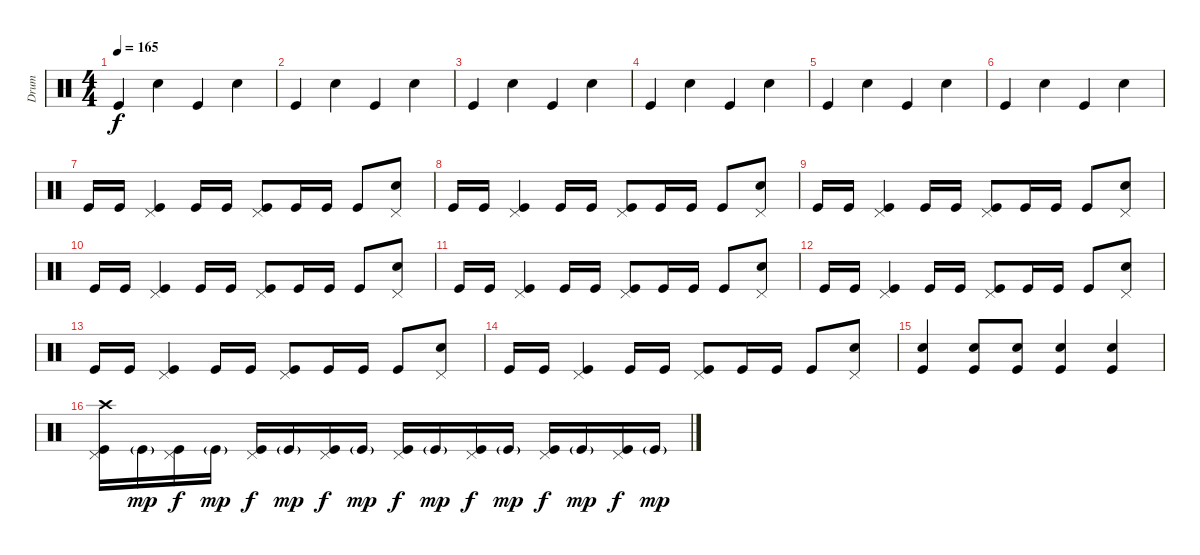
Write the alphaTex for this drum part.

\track ("Drum" "Drum") {instrument percussion}
\staff {score}
\articulation defaults
\ts (4 4)
\tempo 165
\clef neutral
\ks c "Kick (hit)".4{dy f} "Electric Snare (hit)".4 "Kick (hit)".4 "Electric Snare (hit)".4
|
"Kick (hit)".4 "Electric Snare (hit)".4 "Kick (hit)".4 "Electric Snare (hit)".4 |
"Kick (hit)".4 "Electric Snare (hit)".4 "Kick (hit)".4 "Electric Snare (hit)".4 |
"Kick (hit)".4 "Electric Snare (hit)".4 "Kick (hit)".4 "Electric Snare (hit)".4 |
"Kick (hit)".4 "Electric Snare (hit)".4 "Kick (hit)".4 "Electric Snare (hit)".4 |
"Kick (hit)".4 "Electric Snare (hit)".4 "Kick (hit)".4 "Electric Snare (hit)".4 |
"Kick (hit)".16 "Kick (hit)".16 ("Pedal Hi-Hat (hit)" "Kick (hit)").4 "Kick (hit)".16 "Kick (hit)".16 ("Pedal Hi-Hat (hit)" "Kick (hit)").8 "Kick (hit)".16 "Kick (hit)".16 "Kick (hit)".8 ("Pedal Hi-Hat (hit)" "Electric Snare (hit)").8 |
"Kick (hit)".16 "Kick (hit)".16 ("Pedal Hi-Hat (hit)" "Kick (hit)").4 "Kick (hit)".16 "Kick (hit)".16 ("Pedal Hi-Hat (hit)" "Kick (hit)").8 "Kick (hit)".16 "Kick (hit)".16 "Kick (hit)".8 ("Pedal Hi-Hat (hit)" "Electric Snare (hit)").8 |
"Kick (hit)".16 "Kick (hit)".16 ("Pedal Hi-Hat (hit)" "Kick (hit)").4 "Kick (hit)".16 "Kick (hit)".16 ("Pedal Hi-Hat (hit)" "Kick (hit)").8 "Kick (hit)".16 "Kick (hit)".16 "Kick (hit)".8 ("Pedal Hi-Hat (hit)" "Electric Snare (hit)").8 |
"Kick (hit)".16 "Kick (hit)".16 ("Pedal Hi-Hat (hit)" "Kick (hit)").4 "Kick (hit)".16 "Kick (hit)".16 ("Pedal Hi-Hat (hit)" "Kick (hit)").8 "Kick (hit)".16 "Kick (hit)".16 "Kick (hit)".8 ("Pedal Hi-Hat (hit)" "Electric Snare (hit)").8 |
"Kick (hit)".16 "Kick (hit)".16 ("Pedal Hi-Hat (hit)" "Kick (hit)").4 "Kick (hit)".16 "Kick (hit)".16 ("Pedal Hi-Hat (hit)" "Kick (hit)").8 "Kick (hit)".16 "Kick (hit)".16 "Kick (hit)".8 ("Pedal Hi-Hat (hit)" "Electric Snare (hit)").8 |
"Kick (hit)".16 "Kick (hit)".16 ("Pedal Hi-Hat (hit)" "Kick (hit)").4 "Kick (hit)".16 "Kick (hit)".16 ("Pedal Hi-Hat (hit)" "Kick (hit)").8 "Kick (hit)".16 "Kick (hit)".16 "Kick (hit)".8 ("Pedal Hi-Hat (hit)" "Electric Snare (hit)").8 |
"Kick (hit)".16 "Kick (hit)".16 ("Pedal Hi-Hat (hit)" "Kick (hit)").4 "Kick (hit)".16 "Kick (hit)".16 ("Pedal Hi-Hat (hit)" "Kick (hit)").8 "Kick (hit)".16 "Kick (hit)".16 "Kick (hit)".8 ("Pedal Hi-Hat (hit)" "Electric Snare (hit)").8 |
"Kick (hit)".16 "Kick (hit)".16 ("Pedal Hi-Hat (hit)" "Kick (hit)").4 "Kick (hit)".16 "Kick (hit)".16 ("Pedal Hi-Hat (hit)" "Kick (hit)").8 "Kick (hit)".16 "Kick (hit)".16 "Kick (hit)".8 ("Pedal Hi-Hat (hit)" "Electric Snare (hit)").8 |
("Electric Snare (hit)" "Kick (hit)").4 ("Electric Snare (hit)" "Kick (hit)").8 ("Electric Snare (hit)" "Kick (hit)").8 ("Electric Snare (hit)" "Kick (hit)").4 ("Electric Snare (hit)" "Kick (hit)").4 |
("Crash high (hit)" "Pedal Hi-Hat (hit)" "Kick (hit)").16 "Kick (hit)"{g}.16{dy mp} ("Pedal Hi-Hat (hit)" "Kick (hit)").16{dy f} "Kick (hit)"{g}.16{dy mp} ("Pedal Hi-Hat (hit)" "Kick (hit)").16{dy f} "Kick (hit)"{g}.16{dy mp} ("Pedal Hi-Hat (hit)" "Kick (hit)").16{dy f} "Kick (hit)"{g}.16{dy mp} ("Pedal Hi-Hat (hit)" "Kick (hit)").16{dy f} "Kick (hit)"{g}.16{dy mp} ("Pedal Hi-Hat (hit)" "Kick (hit)").16{dy f} "Kick (hit)"{g}.16{dy mp} ("Pedal Hi-Hat (hit)" "Kick (hit)").16{dy f} "Kick (hit)"{g}.16{dy mp} ("Pedal Hi-Hat (hit)" "Kick (hit)").16{dy f} "Kick (hit)"{g}.16{dy mp}
